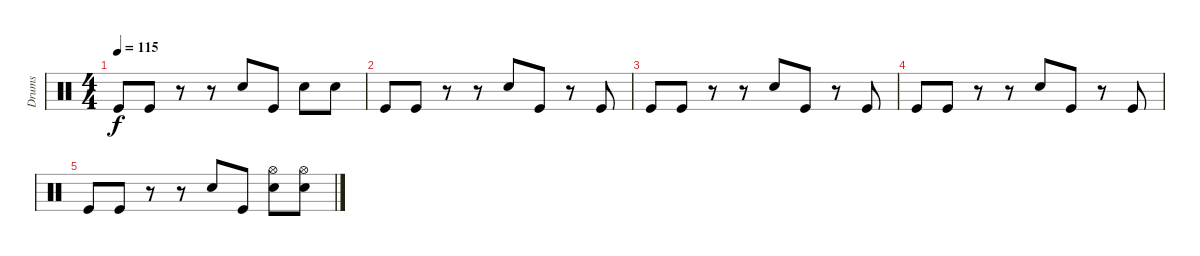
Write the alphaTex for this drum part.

\track ("Drums" "Drums") {instrument percussion}
\staff {score}
\articulation defaults
\ts (4 4)
\tempo 115
\clef neutral
\ks c "Kick (hit)".8{dy f} "Kick (hit)".8
r.8 r.8 "Electric Snare (hit)".8 "Kick (hit)".8 "Electric Snare (hit)".8 "Electric Snare (hit)".8 |
"Kick (hit)".8 "Kick (hit)".8 r.8 r.8 "Electric Snare (hit)".8 "Kick (hit)".8 r.8 "Kick (hit)".8 |
"Kick (hit)".8 "Kick (hit)".8 r.8 r.8 "Electric Snare (hit)".8 "Kick (hit)".8 r.8 "Kick (hit)".8 |
"Kick (hit)".8 "Kick (hit)".8 r.8 r.8 "Electric Snare (hit)".8 "Kick (hit)".8 r.8 "Kick (hit)".8 |
"Kick (hit)".8 "Kick (hit)".8 r.8 r.8 "Electric Snare (hit)".8 "Kick (hit)".8 ("Hi-Hat (open)" "Electric Snare (hit)").8 ("Hi-Hat (open)" "Electric Snare (hit)").8
